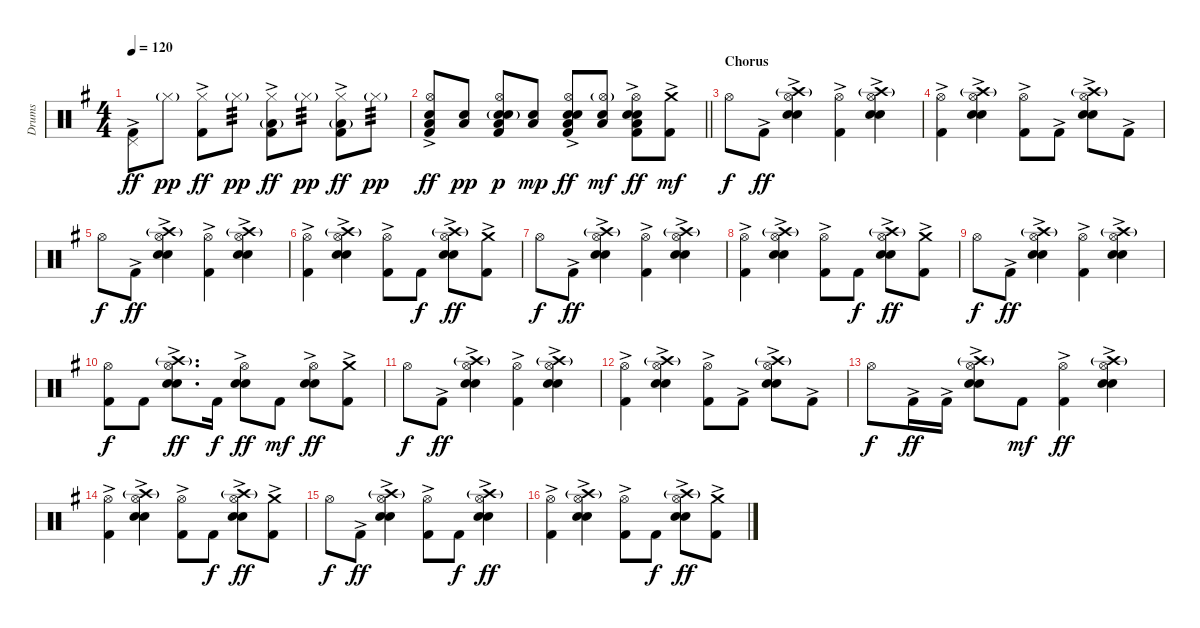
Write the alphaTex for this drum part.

\track ("Drums" "Drums") {instrument percussion}
\staff {score}
\articulation defaults
\ts (4 4)
\tempo 120
\clef neutral
\ks g
("Pedal Hi-Hat (hit)" "Kick (hit) 2"{ac}).8{dy ff} "Hi-Hat (closed)"{g}.8{dy pp} ("Hi-Hat (closed)" "Kick (hit) 2"{ac}).8{dy ff} "Hi-Hat (closed)"{g}.8{tp 3 dy pp} ("Hi-Hat (closed)" "Low Floor Tom (hit)"{g} "Kick (hit) 2"{ac}).8{dy ff} "Hi-Hat (closed)"{g}.8{tp 3 dy pp} ("Hi-Hat (closed)" "Low Floor Tom (hit)"{g} "Kick (hit) 2"{ac}).8{dy ff} "Hi-Hat (closed)"{g}.8{tp 3 dy pp} |
\barLineRight lightlight
("Hi-Hat (open)" "Low Floor Tom (hit)" "Snare (hit) 2" "Kick (hit) 2"{ac}).8{dy ff} ("Low Floor Tom (hit)" "Snare (hit) 2").8{dy pp} ("Hi-Hat (open)" "Low Floor Tom (hit)" "Electric Snare (hit)"{g} "Snare (hit) 2" "Kick (hit) 2").8{dy p} ("Low Floor Tom (hit)" "Snare (hit) 2").8{dy mp} ("Hi-Hat (open)" "Low Floor Tom (hit)" "Electric Snare (hit)" "Snare (hit) 2" "Kick (hit) 2"{ac}).8{dy ff} ("Hi-Hat (open)"{g} "Low Floor Tom (hit)" "Snare (hit) 2").8{dy mf} ("Hi-Hat (open)" "Low Floor Tom (hit)" "Electric Snare (hit)" "Snare (hit) 2" "Kick (hit) 2"{ac}).8{dy ff} ("Crash medium (hit)" "Kick (hit) 2"{ac}).8{dy mf} |
\section ("" "Chorus")
"Hi-Hat (open)".8{dy f} "Kick (hit) 2"{ac}.8{dy ff} ("Hi-Hat (open)" "Crash high (hit)"{g} "Electric Snare (hit)"{ac} "Snare (hit) 2").4 ("Hi-Hat (open)" "Kick (hit) 2"{ac}).4 ("Hi-Hat (open)" "Crash high (hit)"{g} "Electric Snare (hit)"{ac} "Snare (hit) 2").4 |
("Hi-Hat (open)" "Kick (hit) 2"{ac}).4 ("Hi-Hat (open)" "Crash high (hit)"{g} "Electric Snare (hit)"{ac} "Snare (hit) 2").4 ("Hi-Hat (open)" "Kick (hit) 2"{ac}).8 "Kick (hit) 2"{ac}.8 ("Hi-Hat (open)" "Crash high (hit)"{g} "Electric Snare (hit)"{ac} "Snare (hit) 2").8 "Kick (hit) 2"{ac}.8 |
"Hi-Hat (open)".8{dy f} "Kick (hit) 2"{ac}.8{dy ff} ("Hi-Hat (open)" "Crash high (hit)"{g} "Electric Snare (hit)"{ac} "Snare (hit) 2").4 ("Hi-Hat (open)" "Kick (hit) 2"{ac}).4 ("Hi-Hat (open)" "Crash high (hit)"{g} "Electric Snare (hit)"{ac} "Snare (hit) 2").4 |
("Hi-Hat (open)" "Kick (hit) 2"{ac}).4 ("Hi-Hat (open)" "Crash high (hit)"{g} "Electric Snare (hit)"{ac} "Snare (hit) 2").4 ("Hi-Hat (open)" "Kick (hit) 2"{ac}).8 "Kick (hit) 2".8{dy f} ("Hi-Hat (open)" "Crash high (hit)"{g} "Electric Snare (hit)"{ac} "Snare (hit) 2").8{dy ff} ("Crash medium (hit)" "Kick (hit) 2"{ac}).8 |
"Hi-Hat (open)".8{dy f} "Kick (hit) 2"{ac}.8{dy ff} ("Hi-Hat (open)" "Crash high (hit)"{g} "Electric Snare (hit)"{ac} "Snare (hit) 2").4 ("Hi-Hat (open)" "Kick (hit) 2"{ac}).4 ("Hi-Hat (open)" "Crash high (hit)"{g} "Electric Snare (hit)"{ac} "Snare (hit) 2").4 |
("Hi-Hat (open)" "Kick (hit) 2"{ac}).4 ("Hi-Hat (open)" "Crash high (hit)"{g} "Electric Snare (hit)"{ac} "Snare (hit) 2").4 ("Hi-Hat (open)" "Kick (hit) 2"{ac}).8 "Kick (hit) 2".8{dy f} ("Hi-Hat (open)" "Crash high (hit)"{g} "Electric Snare (hit)"{ac} "Snare (hit) 2").8{dy ff} ("Crash medium (hit)" "Kick (hit) 2"{ac}).8 |
"Hi-Hat (open)".8{dy f} "Kick (hit) 2"{ac}.8{dy ff} ("Hi-Hat (open)" "Crash high (hit)"{g} "Electric Snare (hit)"{ac} "Snare (hit) 2").4 ("Hi-Hat (open)" "Kick (hit) 2"{ac}).4 ("Hi-Hat (open)" "Crash high (hit)"{g} "Electric Snare (hit)"{ac} "Snare (hit) 2").4 |
("Hi-Hat (open)" "Kick (hit) 2").8{dy f} "Kick (hit) 2".8 ("Hi-Hat (open)" "Crash high (hit)"{g} "Electric Snare (hit)"{ac} "Snare (hit) 2").8{d dy ff} "Kick (hit) 2".16{dy f} ("Hi-Hat (open)" "Electric Snare (hit)"{ac} "Snare (hit) 2").8{dy ff} "Kick (hit) 2".8{dy mf} ("Hi-Hat (open)" "Electric Snare (hit)"{ac} "Snare (hit) 2").8{dy ff} ("Crash medium (hit)" "Kick (hit) 2"{ac}).8 |
"Hi-Hat (open)".8{dy f} "Kick (hit) 2"{ac}.8{dy ff} ("Hi-Hat (open)" "Crash high (hit)"{g} "Electric Snare (hit)"{ac} "Snare (hit) 2").4 ("Hi-Hat (open)" "Kick (hit) 2"{ac}).4 ("Hi-Hat (open)" "Crash high (hit)"{g} "Electric Snare (hit)"{ac} "Snare (hit) 2").4 |
("Hi-Hat (open)" "Kick (hit) 2"{ac}).4 ("Hi-Hat (open)" "Crash high (hit)"{g} "Electric Snare (hit)"{ac} "Snare (hit) 2").4 ("Hi-Hat (open)" "Kick (hit) 2"{ac}).8 "Kick (hit) 2"{ac}.8 ("Hi-Hat (open)" "Crash high (hit)"{g} "Electric Snare (hit)"{ac} "Snare (hit) 2").8 "Kick (hit) 2"{ac}.8 |
"Hi-Hat (open)".8{dy f} "Kick (hit) 2"{ac}.16{dy ff} "Kick (hit) 2"{ac}.16 ("Hi-Hat (open)" "Crash high (hit)"{g} "Electric Snare (hit)"{ac} "Snare (hit) 2").8 "Kick (hit) 2".8{dy mf} ("Hi-Hat (open)" "Kick (hit) 2"{ac}).4{dy ff} ("Hi-Hat (open)" "Crash high (hit)"{g} "Electric Snare (hit)"{ac} "Snare (hit) 2").4 |
("Hi-Hat (open)" "Kick (hit) 2"{ac}).4 ("Hi-Hat (open)" "Crash high (hit)"{g} "Electric Snare (hit)"{ac} "Snare (hit) 2").4 ("Hi-Hat (open)" "Kick (hit) 2"{ac}).8 "Kick (hit) 2".8{dy f} ("Hi-Hat (open)" "Crash high (hit)"{g} "Electric Snare (hit)"{ac} "Snare (hit) 2").8{dy ff} ("Crash medium (hit)" "Kick (hit) 2"{ac}).8 |
"Hi-Hat (open)".8{dy f} "Kick (hit) 2"{ac}.8{dy ff} ("Hi-Hat (open)" "Crash high (hit)"{g} "Electric Snare (hit)"{ac} "Snare (hit) 2").4 ("Hi-Hat (open)" "Kick (hit) 2"{ac}).8 "Kick (hit) 2".8{dy f} ("Hi-Hat (open)" "Crash high (hit)"{g} "Electric Snare (hit)"{ac} "Snare (hit) 2").4{dy ff} |
("Hi-Hat (open)" "Kick (hit) 2"{ac}).4 ("Hi-Hat (open)" "Crash high (hit)"{g} "Electric Snare (hit)"{ac} "Snare (hit) 2").4 ("Hi-Hat (open)" "Kick (hit) 2"{ac}).8 "Kick (hit) 2".8{dy f} ("Hi-Hat (open)" "Crash high (hit)"{g} "Electric Snare (hit)"{ac} "Snare (hit) 2").8{dy ff} ("Crash medium (hit)" "Kick (hit) 2"{ac}).8
